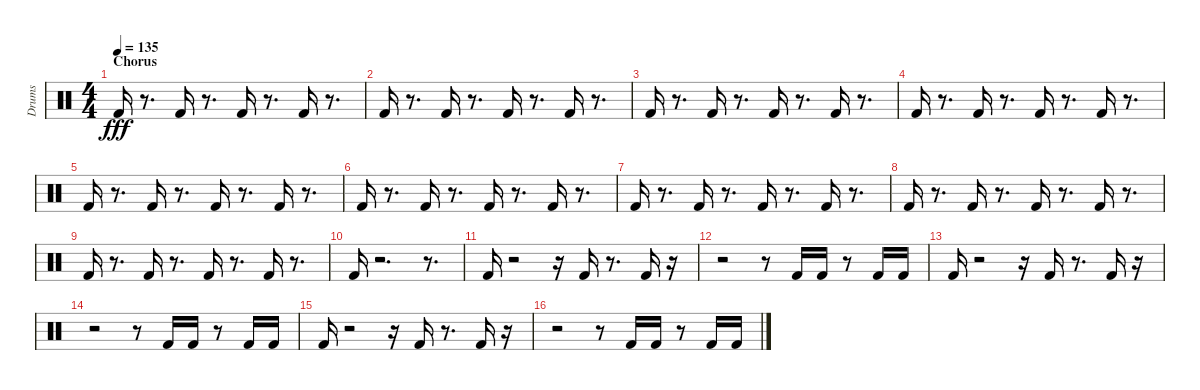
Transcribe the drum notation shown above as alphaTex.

\track ("Drums" "Drums") {instrument percussion}
\staff {score}
\articulation defaults
\ts (4 4)
\section ("" "Chorus")
\tempo 135
\clef neutral
\ks c "Kick (hit) 2".16{dy fff}
r.8{d} "Kick (hit) 2".16 r.8{d} "Kick (hit) 2".16 r.8{d} "Kick (hit) 2".16 r.8{d} |
"Kick (hit) 2".16 r.8{d} "Kick (hit) 2".16 r.8{d} "Kick (hit) 2".16 r.8{d} "Kick (hit) 2".16 r.8{d} |
"Kick (hit) 2".16 r.8{d} "Kick (hit) 2".16 r.8{d} "Kick (hit) 2".16 r.8{d} "Kick (hit) 2".16 r.8{d} |
"Kick (hit) 2".16 r.8{d} "Kick (hit) 2".16 r.8{d} "Kick (hit) 2".16 r.8{d} "Kick (hit) 2".16 r.8{d} |
"Kick (hit) 2".16 r.8{d} "Kick (hit) 2".16 r.8{d} "Kick (hit) 2".16 r.8{d} "Kick (hit) 2".16 r.8{d} |
"Kick (hit) 2".16 r.8{d} "Kick (hit) 2".16 r.8{d} "Kick (hit) 2".16 r.8{d} "Kick (hit) 2".16 r.8{d} |
"Kick (hit) 2".16 r.8{d} "Kick (hit) 2".16 r.8{d} "Kick (hit) 2".16 r.8{d} "Kick (hit) 2".16 r.8{d} |
"Kick (hit) 2".16 r.8{d} "Kick (hit) 2".16 r.8{d} "Kick (hit) 2".16 r.8{d} "Kick (hit) 2".16 r.8{d} |
"Kick (hit) 2".16 r.8{d} "Kick (hit) 2".16 r.8{d} "Kick (hit) 2".16 r.8{d} "Kick (hit) 2".16 r.8{d} |
"Kick (hit) 2".16 r.2{d} r.8{d} |
"Kick (hit) 2".16 r.2 r.16 "Kick (hit) 2".16 r.8{d} "Kick (hit) 2".16 r.16 |
r.2 r.8 "Kick (hit) 2".16 "Kick (hit) 2".16 r.8 "Kick (hit) 2".16 "Kick (hit) 2".16 |
"Kick (hit) 2".16 r.2 r.16 "Kick (hit) 2".16 r.8{d} "Kick (hit) 2".16 r.16 |
r.2 r.8 "Kick (hit) 2".16 "Kick (hit) 2".16 r.8 "Kick (hit) 2".16 "Kick (hit) 2".16 |
"Kick (hit) 2".16 r.2 r.16 "Kick (hit) 2".16 r.8{d} "Kick (hit) 2".16 r.16 |
r.2 r.8 "Kick (hit) 2".16 "Kick (hit) 2".16 r.8 "Kick (hit) 2".16 "Kick (hit) 2".16
